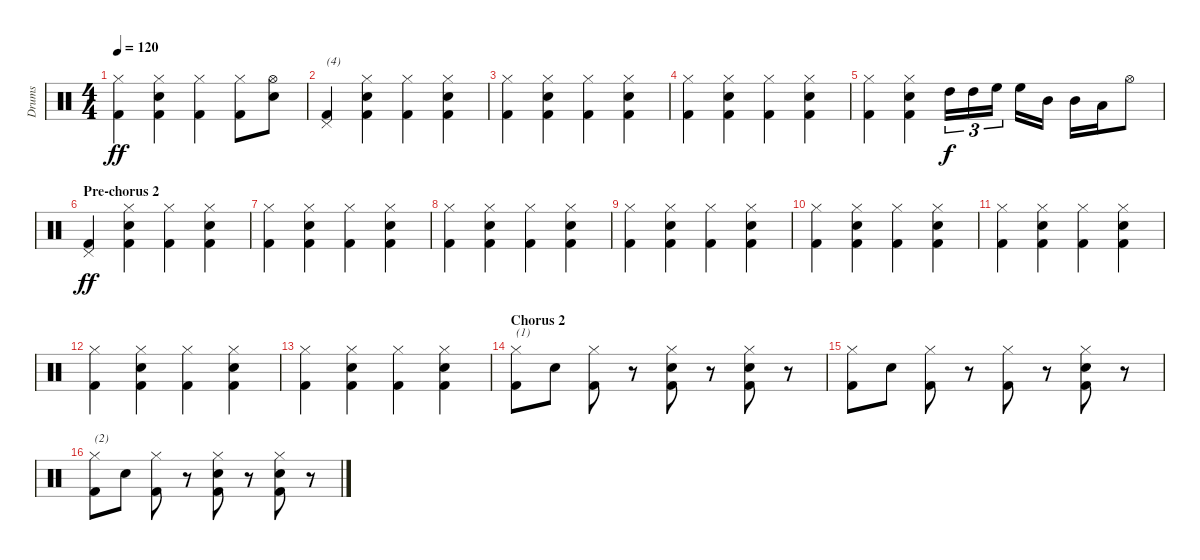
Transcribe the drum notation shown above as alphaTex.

\track ("Drums" "Drums") {instrument percussion}
\staff {score}
\articulation defaults
\ts (4 4)
\tempo 120
\clef neutral
\ks c
("Hi-Hat (closed)" "Kick (hit) 2").4{dy ff} ("Hi-Hat (closed)" "Snare (hit) 2" "Kick (hit) 2").4 ("Hi-Hat (closed)" "Kick (hit) 2").4 ("Hi-Hat (closed)" "Kick (hit) 2").8 ("Hi-Hat (open)" "Snare (hit) 2").8 |
("Pedal Hi-Hat (hit)" "Kick (hit) 2").4{txt "(4)"} ("Hi-Hat (closed)" "Snare (hit) 2" "Kick (hit) 2").4 ("Hi-Hat (closed)" "Kick (hit) 2").4 ("Hi-Hat (closed)" "Snare (hit) 2" "Kick (hit) 2").4 |
("Hi-Hat (closed)" "Kick (hit) 2").4 ("Hi-Hat (closed)" "Snare (hit) 2" "Kick (hit) 2").4 ("Hi-Hat (closed)" "Kick (hit) 2").4 ("Hi-Hat (closed)" "Snare (hit) 2" "Kick (hit) 2").4 |
("Hi-Hat (closed)" "Kick (hit) 2").4 ("Hi-Hat (closed)" "Snare (hit) 2" "Kick (hit) 2").4 ("Hi-Hat (closed)" "Kick (hit) 2").4 ("Hi-Hat (closed)" "Snare (hit) 2" "Kick (hit) 2").4 |
("Hi-Hat (closed)" "Kick (hit) 2").4 ("Hi-Hat (closed)" "Snare (hit) 2" "Kick (hit) 2").4 "High Tom (hit)".16{tu (3 2) dy f} "High Tom (hit)".16{tu (3 2)} "High Floor Tom (hit)".16{tu (3 2)} "High Floor Tom (hit)".16 "Mid Tom (hit)".16 "Mid Tom (hit)".16 "Low Tom (hit)".16 "Hi-Hat (open)".8 |
\section ("" "Pre-chorus 2")
("Pedal Hi-Hat (hit)" "Kick (hit) 2").4{dy ff} ("Hi-Hat (closed)" "Snare (hit) 2" "Kick (hit) 2").4 ("Hi-Hat (closed)" "Kick (hit) 2").4 ("Hi-Hat (closed)" "Snare (hit) 2" "Kick (hit) 2").4 |
("Hi-Hat (closed)" "Kick (hit) 2").4 ("Hi-Hat (closed)" "Snare (hit) 2" "Kick (hit) 2").4 ("Hi-Hat (closed)" "Kick (hit) 2").4 ("Hi-Hat (closed)" "Snare (hit) 2" "Kick (hit) 2").4 |
("Hi-Hat (closed)" "Kick (hit) 2").4 ("Hi-Hat (closed)" "Snare (hit) 2" "Kick (hit) 2").4 ("Hi-Hat (closed)" "Kick (hit) 2").4 ("Hi-Hat (closed)" "Snare (hit) 2" "Kick (hit) 2").4 |
("Hi-Hat (closed)" "Kick (hit) 2").4 ("Hi-Hat (closed)" "Snare (hit) 2" "Kick (hit) 2").4 ("Hi-Hat (closed)" "Kick (hit) 2").4 ("Hi-Hat (closed)" "Snare (hit) 2" "Kick (hit) 2").4 |
("Hi-Hat (closed)" "Kick (hit) 2").4 ("Hi-Hat (closed)" "Snare (hit) 2" "Kick (hit) 2").4 ("Hi-Hat (closed)" "Kick (hit) 2").4 ("Hi-Hat (closed)" "Snare (hit) 2" "Kick (hit) 2").4 |
("Hi-Hat (closed)" "Kick (hit) 2").4 ("Hi-Hat (closed)" "Snare (hit) 2" "Kick (hit) 2").4 ("Hi-Hat (closed)" "Kick (hit) 2").4 ("Hi-Hat (closed)" "Snare (hit) 2" "Kick (hit) 2").4 |
("Hi-Hat (closed)" "Kick (hit) 2").4 ("Hi-Hat (closed)" "Snare (hit) 2" "Kick (hit) 2").4 ("Hi-Hat (closed)" "Kick (hit) 2").4 ("Hi-Hat (closed)" "Snare (hit) 2" "Kick (hit) 2").4 |
("Hi-Hat (closed)" "Kick (hit) 2").4 ("Hi-Hat (closed)" "Snare (hit) 2" "Kick (hit) 2").4 ("Hi-Hat (closed)" "Kick (hit) 2").4 ("Hi-Hat (closed)" "Snare (hit) 2" "Kick (hit) 2").4 |
\section ("" "Chorus 2")
("Hi-Hat (closed)" "Kick (hit) 2").8{txt "(1)"} "Snare (hit) 2".8 ("Hi-Hat (closed)" "Kick (hit) 2").8 r.8 ("Hi-Hat (closed)" "Snare (hit) 2" "Kick (hit) 2").8 r.8 ("Hi-Hat (closed)" "Snare (hit) 2" "Kick (hit) 2").8 r.8 |
("Hi-Hat (closed)" "Kick (hit) 2").8 "Snare (hit) 2".8 ("Hi-Hat (closed)" "Kick (hit) 2").8 r.8 ("Hi-Hat (closed)" "Kick (hit) 2").8 r.8 ("Hi-Hat (closed)" "Snare (hit) 2" "Kick (hit) 2").8 r.8 |
("Hi-Hat (closed)" "Kick (hit) 2").8{txt "(2)"} "Snare (hit) 2".8 ("Hi-Hat (closed)" "Kick (hit) 2").8 r.8 ("Hi-Hat (closed)" "Snare (hit) 2" "Kick (hit) 2").8 r.8 ("Hi-Hat (closed)" "Snare (hit) 2" "Kick (hit) 2").8 r.8
